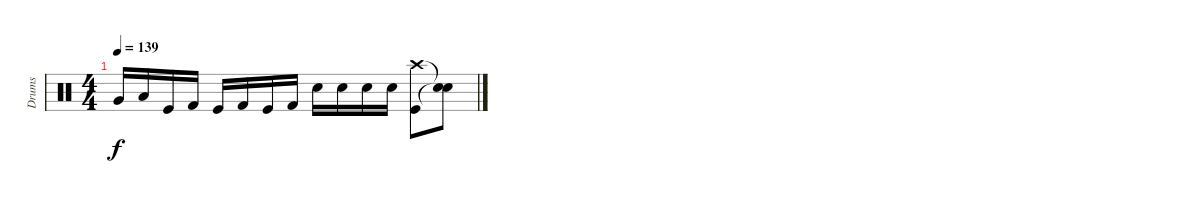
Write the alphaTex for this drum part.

\track ("Drums" "Drums") {instrument percussion}
\staff {score}
\articulation defaults
\ts (4 4)
\tempo 139
\clef neutral
\ks c "Very Low Tom (hit)".16{dy f} "Low Floor Tom (hit)".16 "Kick (hit)".16 "Kick (hit) 2".16 "Kick (hit)".16 "Kick (hit) 2".16 "Kick (hit)".16 "Kick (hit) 2".16 "Electric Snare (hit)".16 "Electric Snare (hit)".16 "Electric Snare (hit)".16 "Electric Snare (hit)".16
("Crash high (hit)" "Kick (hit)").8 ("Snare (hit)"{t} "Snare (hit)"{t}).8
